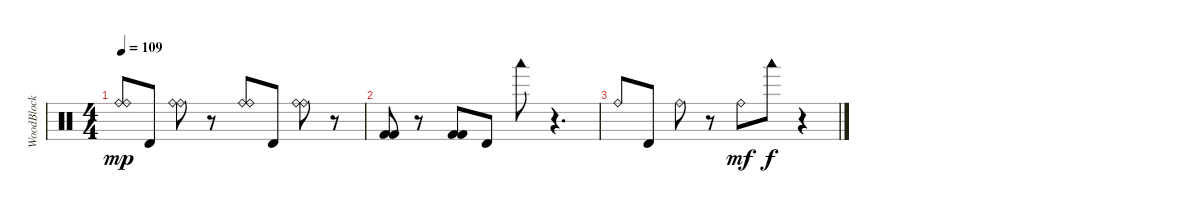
\track ("WoodBlock of Peart" "WoodBlock ") {instrument percussion}
\staff {score}
\articulation defaults
\ts (4 4)
\tempo 109
\clef neutral
\ks c
("Ride (bell)" "Ride (bell)").8{dy mp} "Timbale high (hit)".8 ("Ride (bell)" "Ride (bell)").8 r.8 ("Ride (bell)" "Ride (bell)").8 "Timbale high (hit)".8 ("Ride (bell)" "Ride (bell)").8 r.8 |
("Kick (hit) 2" "Kick (hit) 2").8 r.8 ("Kick (hit) 2" "Kick (hit) 2").8 "Timbale high (hit)".8 "Woodblock low (hit)".8 r.4{d} |
"Ride (bell)".8 "Timbale high (hit)".8 "Ride (bell)".8 r.8 "Ride (bell)".8{dy mf} "Woodblock low (hit)".8{dy f} r.4
